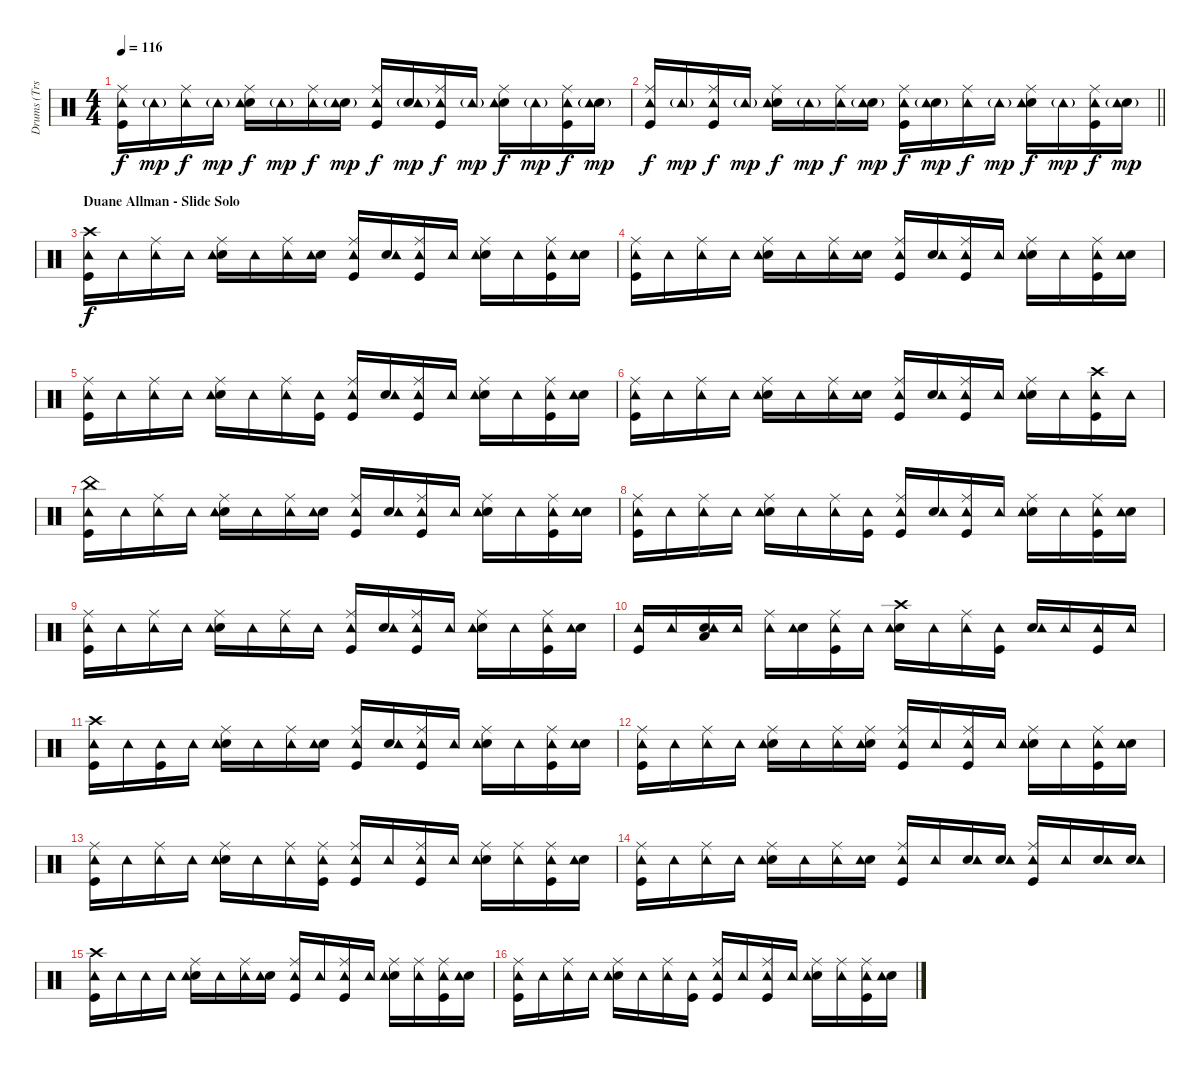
\track ("Drums (Trs. 7-8A, 10A/7-8B, 10B, 12-13B)" "Drums (Trs") {mute instrument percussion}
\staff {score}
\articulation defaults
\ts (4 4)
\tempo 116
\clef neutral
\ks c
("Kick (hit)" "Ride (middle)" "Tambourine (hit)").16{dy f} "Tambourine (hit)"{g}.16{dy mp} ("Ride (middle)" "Tambourine (hit)").16{dy f} "Tambourine (hit)"{g}.16{dy mp} ("Ride (middle)" "Electric Snare (hit)" "Tambourine (hit)").16{dy f} "Tambourine (hit)"{g}.16{dy mp} ("Ride (middle)" "Tambourine (hit)").16{dy f} ("Electric Snare (hit)" "Tambourine (hit)"{g}).16{dy mp} ("Kick (hit)" "Ride (middle)" "Tambourine (hit)").16{dy f} ("Electric Snare (hit)" "Tambourine (hit)"{g}).16{dy mp} ("Ride (middle)" "Kick (hit)" "Tambourine (hit)").16{dy f} "Tambourine (hit)"{g}.16{dy mp} ("Ride (middle)" "Electric Snare (hit)" "Tambourine (hit)").16{dy f} "Tambourine (hit)"{g}.16{dy mp} ("Ride (middle)" "Kick (hit)" "Tambourine (hit)").16{dy f} ("Electric Snare (hit)" "Tambourine (hit)"{g}).16{dy mp} |
\barLineRight lightlight
("Kick (hit)" "Ride (middle)" "Tambourine (hit)").16{dy f} "Tambourine (hit)"{g}.16{dy mp} ("Ride (middle)" "Kick (hit)" "Tambourine (hit)").16{dy f} "Tambourine (hit)"{g}.16{dy mp} ("Electric Snare (hit)" "Ride (middle)" "Tambourine (hit)").16{dy f} "Tambourine (hit)"{g}.16{dy mp} ("Ride (middle)" "Tambourine (hit)").16{dy f} ("Electric Snare (hit)" "Tambourine (hit)"{g}).16{dy mp} ("Kick (hit)" "Ride (middle)" "Tambourine (hit)").16{dy f} ("Electric Snare (hit)" "Tambourine (hit)"{g}).16{dy mp} ("Ride (middle)" "Tambourine (hit)").16{dy f} "Tambourine (hit)"{g}.16{dy mp} ("Electric Snare (hit)" "Ride (middle)" "Tambourine (hit)").16{dy f} "Tambourine (hit)"{g}.16{dy mp} ("Ride (middle)" "Kick (hit)" "Tambourine (hit)").16{dy f} ("Electric Snare (hit)" "Tambourine (hit)"{g}).16{dy mp} |
\section ("" "Duane Allman - Slide Solo")
("Kick (hit)" "Crash high (hit)" "Tambourine (hit)").16{dy f} "Tambourine (hit)".16 ("Ride (middle)" "Tambourine (hit)").16 "Tambourine (hit)".16 ("Ride (middle)" "Electric Snare (hit)" "Tambourine (hit)").16 "Tambourine (hit)".16 ("Ride (middle)" "Tambourine (hit)").16 ("Electric Snare (hit)" "Tambourine (hit)").16 ("Kick (hit)" "Ride (middle)" "Tambourine (hit)").16 ("Electric Snare (hit)" "Tambourine (hit)").16 ("Ride (middle)" "Kick (hit)" "Tambourine (hit)").16 "Tambourine (hit)".16 ("Ride (middle)" "Electric Snare (hit)" "Tambourine (hit)").16 "Tambourine (hit)".16 ("Ride (middle)" "Kick (hit)" "Tambourine (hit)").16 ("Electric Snare (hit)" "Tambourine (hit)").16 |
("Kick (hit)" "Ride (middle)" "Tambourine (hit)").16 "Tambourine (hit)".16 ("Ride (middle)" "Tambourine (hit)").16 "Tambourine (hit)".16 ("Electric Snare (hit)" "Ride (middle)" "Tambourine (hit)").16 "Tambourine (hit)".16 ("Ride (middle)" "Tambourine (hit)").16 ("Electric Snare (hit)" "Tambourine (hit)").16 ("Ride (middle)" "Kick (hit)" "Tambourine (hit)").16 ("Electric Snare (hit)" "Tambourine (hit)").16 ("Ride (middle)" "Kick (hit)" "Tambourine (hit)").16 "Tambourine (hit)".16 ("Ride (middle)" "Electric Snare (hit)" "Tambourine (hit)").16 "Tambourine (hit)".16 ("Ride (middle)" "Kick (hit)" "Tambourine (hit)").16 ("Electric Snare (hit)" "Tambourine (hit)").16 |
("Kick (hit)" "Ride (middle)" "Tambourine (hit)").16 "Tambourine (hit)".16 ("Ride (middle)" "Tambourine (hit)").16 "Tambourine (hit)".16 ("Electric Snare (hit)" "Ride (middle)" "Tambourine (hit)").16 "Tambourine (hit)".16 ("Ride (middle)" "Tambourine (hit)").16 ("Kick (hit)" "Tambourine (hit)").16 ("Ride (middle)" "Kick (hit)" "Tambourine (hit)").16 ("Electric Snare (hit)" "Tambourine (hit)").16 ("Kick (hit)" "Ride (middle)" "Tambourine (hit)").16 "Tambourine (hit)".16 ("Electric Snare (hit)" "Ride (middle)" "Tambourine (hit)").16 "Tambourine (hit)".16 ("Kick (hit)" "Ride (middle)" "Tambourine (hit)").16 ("Electric Snare (hit)" "Tambourine (hit)").16 |
("Ride (middle)" "Kick (hit)" "Tambourine (hit)").16 "Tambourine (hit)".16 ("Ride (middle)" "Tambourine (hit)").16 "Tambourine (hit)".16 ("Electric Snare (hit)" "Ride (middle)" "Tambourine (hit)").16 "Tambourine (hit)".16 ("Ride (middle)" "Tambourine (hit)").16 ("Electric Snare (hit)" "Tambourine (hit)").16 ("Kick (hit)" "Ride (middle)" "Tambourine (hit)").16 ("Electric Snare (hit)" "Tambourine (hit)").16 ("Ride (middle)" "Kick (hit)" "Tambourine (hit)").16 "Tambourine (hit)".16 ("Electric Snare (hit)" "Ride (middle)" "Tambourine (hit)").16 "Tambourine (hit)".16 ("Kick (hit)" "Crash high (hit)" "Tambourine (hit)").16 "Tambourine (hit)".16 |
("China (hit)" "Kick (hit)" "Tambourine (hit)").16 "Tambourine (hit)".16 ("Ride (middle)" "Tambourine (hit)").16 "Tambourine (hit)".16 ("Ride (middle)" "Electric Snare (hit)" "Tambourine (hit)").16 "Tambourine (hit)".16 ("Ride (middle)" "Tambourine (hit)").16 ("Electric Snare (hit)" "Tambourine (hit)").16 ("Kick (hit)" "Ride (middle)" "Tambourine (hit)").16 ("Electric Snare (hit)" "Tambourine (hit)").16 ("Kick (hit)" "Ride (middle)" "Tambourine (hit)").16 "Tambourine (hit)".16 ("Ride (middle)" "Electric Snare (hit)" "Tambourine (hit)").16 "Tambourine (hit)".16 ("Ride (middle)" "Kick (hit)" "Tambourine (hit)").16 ("Electric Snare (hit)" "Tambourine (hit)").16 |
("Ride (middle)" "Kick (hit)" "Tambourine (hit)").16 "Tambourine (hit)".16 ("Ride (middle)" "Tambourine (hit)").16 "Tambourine (hit)".16 ("Ride (middle)" "Electric Snare (hit)" "Tambourine (hit)").16 "Tambourine (hit)".16 ("Ride (middle)" "Tambourine (hit)").16 ("Kick (hit)" "Tambourine (hit)").16 ("Ride (middle)" "Kick (hit)" "Tambourine (hit)").16 ("Electric Snare (hit)" "Tambourine (hit)").16 ("Kick (hit)" "Ride (middle)" "Tambourine (hit)").16 "Tambourine (hit)".16 ("Electric Snare (hit)" "Ride (middle)" "Tambourine (hit)").16 "Tambourine (hit)".16 ("Kick (hit)" "Ride (middle)" "Tambourine (hit)").16 ("Electric Snare (hit)" "Tambourine (hit)").16 |
("Ride (middle)" "Kick (hit)" "Tambourine (hit)").16 "Tambourine (hit)".16 ("Ride (middle)" "Tambourine (hit)").16 "Tambourine (hit)".16 ("Electric Snare (hit)" "Ride (middle)" "Tambourine (hit)").16 "Tambourine (hit)".16 ("Ride (middle)" "Tambourine (hit)").16 "Tambourine (hit)".16 ("Ride (middle)" "Kick (hit)" "Tambourine (hit)").16 ("Electric Snare (hit)" "Tambourine (hit)").16 ("Kick (hit)" "Ride (middle)" "Tambourine (hit)").16 "Tambourine (hit)".16 ("Ride (middle)" "Electric Snare (hit)" "Tambourine (hit)").16 "Tambourine (hit)".16 ("Ride (middle)" "Kick (hit)" "Tambourine (hit)").16 ("Electric Snare (hit)" "Tambourine (hit)").16 |
("Kick (hit)" "Tambourine (hit)").16 "Tambourine (hit)".16 ("Low Floor Tom (hit)" "Electric Snare (hit)" "Tambourine (hit)").16 "Tambourine (hit)".16 ("Ride (middle)" "Tambourine (hit)").16 ("Electric Snare (hit)" "Tambourine (hit)").16 ("Ride (middle)" "Kick (hit)" "Tambourine (hit)").16 "Tambourine (hit)".16 ("Crash high (hit)" "Electric Snare (hit)" "Tambourine (hit)").16 "Tambourine (hit)".16 ("Ride (middle)" "Tambourine (hit)").16 ("Kick (hit)" "Tambourine (hit)").16 ("Electric Snare (hit)" "Tambourine (hit)").16 "Tambourine (hit)".16 ("Kick (hit)" "Tambourine (hit)").16 "Tambourine (hit)".16 |
("Crash high (hit)" "Kick (hit)" "Tambourine (hit)").16 "Tambourine (hit)".16 ("Kick (hit)" "Tambourine (hit)").16 "Tambourine (hit)".16 ("Ride (middle)" "Electric Snare (hit)" "Tambourine (hit)").16 "Tambourine (hit)".16 ("Ride (middle)" "Tambourine (hit)").16 ("Electric Snare (hit)" "Tambourine (hit)").16 ("Ride (middle)" "Kick (hit)" "Tambourine (hit)").16 ("Electric Snare (hit)" "Tambourine (hit)").16 ("Kick (hit)" "Ride (middle)" "Tambourine (hit)").16 "Tambourine (hit)".16 ("Electric Snare (hit)" "Ride (middle)" "Tambourine (hit)").16 "Tambourine (hit)".16 ("Ride (middle)" "Kick (hit)" "Tambourine (hit)").16 ("Electric Snare (hit)" "Tambourine (hit)").16 |
("Kick (hit)" "Ride (middle)" "Tambourine (hit)").16 "Tambourine (hit)".16 ("Ride (middle)" "Tambourine (hit)").16 "Tambourine (hit)".16 ("Ride (middle)" "Electric Snare (hit)" "Tambourine (hit)").16 "Tambourine (hit)".16 ("Ride (middle)" "Tambourine (hit)").16 ("Ride (middle)" "Electric Snare (hit)" "Tambourine (hit)").16 ("Ride (middle)" "Kick (hit)" "Tambourine (hit)").16 "Tambourine (hit)".16 ("Kick (hit)" "Ride (middle)" "Tambourine (hit)").16 "Tambourine (hit)".16 ("Electric Snare (hit)" "Ride (middle)" "Tambourine (hit)").16 "Tambourine (hit)".16 ("Kick (hit)" "Ride (middle)" "Tambourine (hit)").16 ("Electric Snare (hit)" "Tambourine (hit)").16 |
("Ride (middle)" "Kick (hit)" "Tambourine (hit)").16 "Tambourine (hit)".16 ("Ride (middle)" "Tambourine (hit)").16 "Tambourine (hit)".16 ("Electric Snare (hit)" "Ride (middle)" "Tambourine (hit)").16 "Tambourine (hit)".16 ("Ride (middle)" "Tambourine (hit)").16 ("Ride (middle)" "Kick (hit)" "Tambourine (hit)").16 ("Ride (middle)" "Kick (hit)" "Tambourine (hit)").16 "Tambourine (hit)".16 ("Kick (hit)" "Ride (middle)" "Tambourine (hit)").16 "Tambourine (hit)".16 ("Ride (middle)" "Electric Snare (hit)" "Tambourine (hit)").16 ("Ride (middle)" "Tambourine (hit)").16 ("Ride (middle)" "Kick (hit)" "Tambourine (hit)").16 ("Electric Snare (hit)" "Tambourine (hit)").16 |
("Ride (middle)" "Kick (hit)" "Tambourine (hit)").16 "Tambourine (hit)".16 ("Ride (middle)" "Tambourine (hit)").16 "Tambourine (hit)".16 ("Electric Snare (hit)" "Ride (middle)" "Tambourine (hit)").16 "Tambourine (hit)".16 ("Ride (middle)" "Tambourine (hit)").16 ("Electric Snare (hit)" "Tambourine (hit)").16 ("Ride (middle)" "Kick (hit)" "Tambourine (hit)").16 "Tambourine (hit)".16 ("Electric Snare (hit)" "Tambourine (hit)").16 ("Electric Snare (hit)" "Tambourine (hit)").16 ("Ride (middle)" "Kick (hit)" "Tambourine (hit)").16 "Tambourine (hit)".16 ("Electric Snare (hit)" "Tambourine (hit)").16 ("Electric Snare (hit)" "Tambourine (hit)").16 |
("Crash high (hit)" "Kick (hit)" "Tambourine (hit)").16 "Tambourine (hit)".16 "Tambourine (hit)".16 "Tambourine (hit)".16 ("Electric Snare (hit)" "Ride (middle)" "Tambourine (hit)").16 "Tambourine (hit)".16 ("Ride (middle)" "Tambourine (hit)").16 ("Electric Snare (hit)" "Tambourine (hit)").16 ("Kick (hit)" "Ride (middle)" "Tambourine (hit)").16 "Tambourine (hit)".16 ("Ride (middle)" "Kick (hit)" "Tambourine (hit)").16 "Tambourine (hit)".16 ("Electric Snare (hit)" "Ride (middle)" "Tambourine (hit)").16 ("Ride (middle)" "Tambourine (hit)").16 ("Ride (middle)" "Kick (hit)" "Tambourine (hit)").16 ("Electric Snare (hit)" "Tambourine (hit)").16 |
("Ride (middle)" "Kick (hit)" "Tambourine (hit)").16 "Tambourine (hit)".16 ("Ride (middle)" "Tambourine (hit)").16 "Tambourine (hit)".16 ("Electric Snare (hit)" "Ride (middle)" "Tambourine (hit)").16 "Tambourine (hit)".16 ("Ride (middle)" "Tambourine (hit)").16 ("Kick (hit)" "Tambourine (hit)").16 ("Kick (hit)" "Ride (middle)" "Tambourine (hit)").16 "Tambourine (hit)".16 ("Kick (hit)" "Ride (middle)" "Tambourine (hit)").16 "Tambourine (hit)".16 ("Ride (middle)" "Electric Snare (hit)" "Tambourine (hit)").16 ("Ride (middle)" "Tambourine (hit)").16 ("Ride (middle)" "Kick (hit)" "Tambourine (hit)").16 ("Electric Snare (hit)" "Tambourine (hit)").16
